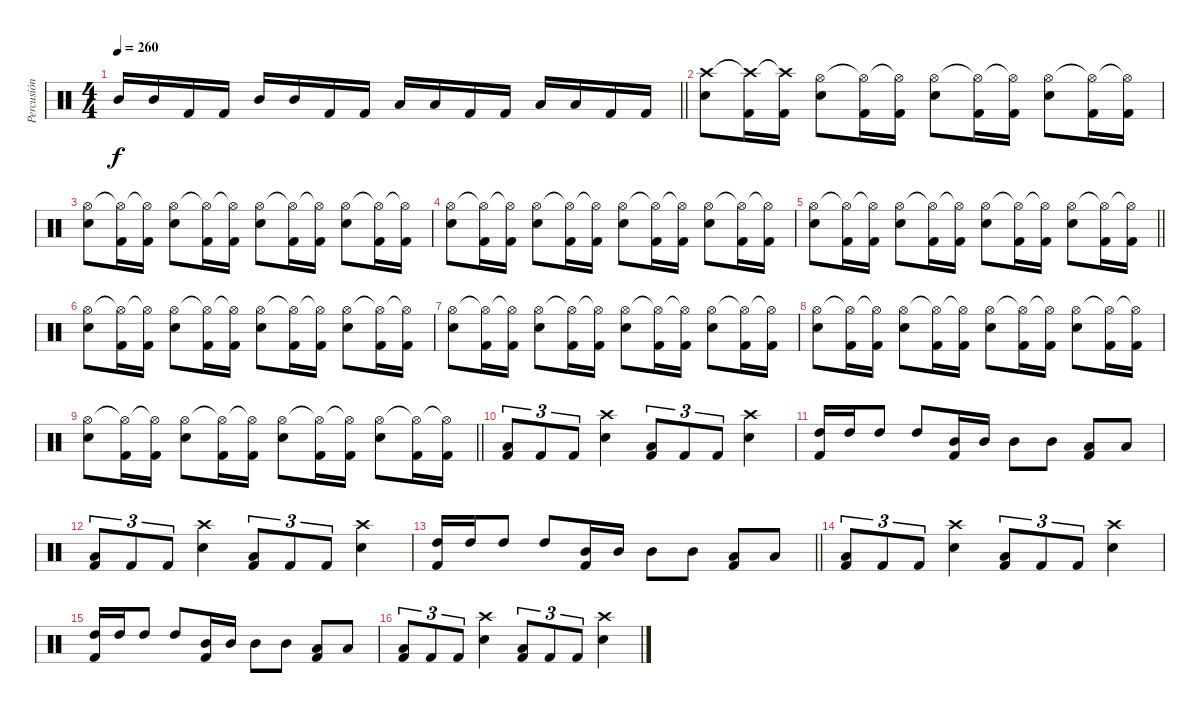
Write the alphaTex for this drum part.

\track ("Percusión" "Percusión") {instrument percussion}
\staff {score}
\articulation defaults
\ts (4 4)
\tempo 260
\clef neutral
\barLineRight lightlight
\ks c "Mid Tom (hit)".16{dy f} "Mid Tom (hit)".16 "Kick (hit) 2".16 "Kick (hit) 2".16 "Mid Tom (hit)".16 "Mid Tom (hit)".16 "Kick (hit) 2".16 "Kick (hit) 2".16 "Low Tom (hit)".16 "Low Tom (hit)".16 "Kick (hit) 2".16 "Kick (hit) 2".16 "Low Tom (hit)".16 "Low Tom (hit)".16 "Kick (hit) 2".16 "Kick (hit) 2".16
|
("Snare (hit) 2" "Crash high (hit)").8 ("Kick (hit) 2" "Crash high (hit)"{t}).16 ("Kick (hit) 2" "Crash high (hit)"{t}).16 ("Snare (hit) 2" "Hi-Hat (open)").8 ("Kick (hit) 2" "Hi-Hat (open)"{t}).16 ("Kick (hit) 2" "Hi-Hat (open)"{t}).16 ("Snare (hit) 2" "Hi-Hat (open)").8 ("Kick (hit) 2" "Hi-Hat (open)"{t}).16 ("Kick (hit) 2" "Hi-Hat (open)"{t}).16 ("Snare (hit) 2" "Hi-Hat (open)").8 ("Kick (hit) 2" "Hi-Hat (open)"{t}).16 ("Kick (hit) 2" "Hi-Hat (open)"{t}).16 |
("Snare (hit) 2" "Hi-Hat (open)").8 ("Kick (hit) 2" "Hi-Hat (open)"{t}).16 ("Kick (hit) 2" "Hi-Hat (open)"{t}).16 ("Snare (hit) 2" "Hi-Hat (open)").8 ("Kick (hit) 2" "Hi-Hat (open)"{t}).16 ("Kick (hit) 2" "Hi-Hat (open)"{t}).16 ("Snare (hit) 2" "Hi-Hat (open)").8 ("Kick (hit) 2" "Hi-Hat (open)"{t}).16 ("Kick (hit) 2" "Hi-Hat (open)"{t}).16 ("Snare (hit) 2" "Hi-Hat (open)").8 ("Kick (hit) 2" "Hi-Hat (open)"{t}).16 ("Kick (hit) 2" "Hi-Hat (open)"{t}).16 |
("Snare (hit) 2" "Hi-Hat (open)").8 ("Kick (hit) 2" "Hi-Hat (open)"{t}).16 ("Kick (hit) 2" "Hi-Hat (open)"{t}).16 ("Snare (hit) 2" "Hi-Hat (open)").8 ("Kick (hit) 2" "Hi-Hat (open)"{t}).16 ("Kick (hit) 2" "Hi-Hat (open)"{t}).16 ("Snare (hit) 2" "Hi-Hat (open)").8 ("Kick (hit) 2" "Hi-Hat (open)"{t}).16 ("Kick (hit) 2" "Hi-Hat (open)"{t}).16 ("Snare (hit) 2" "Hi-Hat (open)").8 ("Kick (hit) 2" "Hi-Hat (open)"{t}).16 ("Kick (hit) 2" "Hi-Hat (open)"{t}).16 |
\barLineRight lightlight
("Snare (hit) 2" "Hi-Hat (open)").8 ("Kick (hit) 2" "Hi-Hat (open)"{t}).16 ("Kick (hit) 2" "Hi-Hat (open)"{t}).16 ("Snare (hit) 2" "Hi-Hat (open)").8 ("Kick (hit) 2" "Hi-Hat (open)"{t}).16 ("Kick (hit) 2" "Hi-Hat (open)"{t}).16 ("Snare (hit) 2" "Hi-Hat (open)").8 ("Kick (hit) 2" "Hi-Hat (open)"{t}).16 ("Kick (hit) 2" "Hi-Hat (open)"{t}).16 ("Snare (hit) 2" "Hi-Hat (open)").8 ("Kick (hit) 2" "Hi-Hat (open)"{t}).16 ("Kick (hit) 2" "Hi-Hat (open)"{t}).16 |
("Snare (hit) 2" "Hi-Hat (open)").8 ("Kick (hit) 2" "Hi-Hat (open)"{t}).16 ("Kick (hit) 2" "Hi-Hat (open)"{t}).16 ("Snare (hit) 2" "Hi-Hat (open)").8 ("Kick (hit) 2" "Hi-Hat (open)"{t}).16 ("Kick (hit) 2" "Hi-Hat (open)"{t}).16 ("Snare (hit) 2" "Hi-Hat (open)").8 ("Kick (hit) 2" "Hi-Hat (open)"{t}).16 ("Kick (hit) 2" "Hi-Hat (open)"{t}).16 ("Snare (hit) 2" "Hi-Hat (open)").8 ("Kick (hit) 2" "Hi-Hat (open)"{t}).16 ("Kick (hit) 2" "Hi-Hat (open)"{t}).16 |
("Snare (hit) 2" "Hi-Hat (open)").8 ("Kick (hit) 2" "Hi-Hat (open)"{t}).16 ("Kick (hit) 2" "Hi-Hat (open)"{t}).16 ("Snare (hit) 2" "Hi-Hat (open)").8 ("Kick (hit) 2" "Hi-Hat (open)"{t}).16 ("Kick (hit) 2" "Hi-Hat (open)"{t}).16 ("Snare (hit) 2" "Hi-Hat (open)").8 ("Kick (hit) 2" "Hi-Hat (open)"{t}).16 ("Kick (hit) 2" "Hi-Hat (open)"{t}).16 ("Snare (hit) 2" "Hi-Hat (open)").8 ("Kick (hit) 2" "Hi-Hat (open)"{t}).16 ("Kick (hit) 2" "Hi-Hat (open)"{t}).16 |
("Snare (hit) 2" "Hi-Hat (open)").8 ("Kick (hit) 2" "Hi-Hat (open)"{t}).16 ("Kick (hit) 2" "Hi-Hat (open)"{t}).16 ("Snare (hit) 2" "Hi-Hat (open)").8 ("Kick (hit) 2" "Hi-Hat (open)"{t}).16 ("Kick (hit) 2" "Hi-Hat (open)"{t}).16 ("Snare (hit) 2" "Hi-Hat (open)").8 ("Kick (hit) 2" "Hi-Hat (open)"{t}).16 ("Kick (hit) 2" "Hi-Hat (open)"{t}).16 ("Snare (hit) 2" "Hi-Hat (open)").8 ("Kick (hit) 2" "Hi-Hat (open)"{t}).16 ("Kick (hit) 2" "Hi-Hat (open)"{t}).16 |
\barLineRight lightlight
("Snare (hit) 2" "Hi-Hat (open)").8 ("Kick (hit) 2" "Hi-Hat (open)"{t}).16 ("Kick (hit) 2" "Hi-Hat (open)"{t}).16 ("Snare (hit) 2" "Hi-Hat (open)").8 ("Kick (hit) 2" "Hi-Hat (open)"{t}).16 ("Kick (hit) 2" "Hi-Hat (open)"{t}).16 ("Snare (hit) 2" "Hi-Hat (open)").8 ("Kick (hit) 2" "Hi-Hat (open)"{t}).16 ("Kick (hit) 2" "Hi-Hat (open)"{t}).16 ("Snare (hit) 2" "Hi-Hat (open)").8 ("Kick (hit) 2" "Hi-Hat (open)"{t}).16 ("Kick (hit) 2" "Hi-Hat (open)"{t}).16 |
("Low Tom (hit)" "Kick (hit) 2").8{tu (3 2)} "Kick (hit) 2".8{tu (3 2)} "Kick (hit) 2".8{tu (3 2)} ("Snare (hit) 2" "Crash high (hit)").4 ("Low Tom (hit)" "Kick (hit) 2").8{tu (3 2)} "Kick (hit) 2".8{tu (3 2)} "Kick (hit) 2".8{tu (3 2)} ("Snare (hit) 2" "Crash high (hit)").4 |
("Kick (hit) 2" "High Tom (hit)").16 "High Tom (hit)".16 "High Tom (hit)".8 "High Tom (hit)".8 ("Kick (hit) 2" "Mid Tom (hit)").16 "Mid Tom (hit)".16 "Mid Tom (hit)".8 "Mid Tom (hit)".8 ("Kick (hit) 2" "Low Tom (hit)").8 "Low Tom (hit)".8 |
("Low Tom (hit)" "Kick (hit) 2").8{tu (3 2)} "Kick (hit) 2".8{tu (3 2)} "Kick (hit) 2".8{tu (3 2)} ("Snare (hit) 2" "Crash high (hit)").4 ("Low Tom (hit)" "Kick (hit) 2").8{tu (3 2)} "Kick (hit) 2".8{tu (3 2)} "Kick (hit) 2".8{tu (3 2)} ("Snare (hit) 2" "Crash high (hit)").4 |
\barLineRight lightlight
("Kick (hit) 2" "High Tom (hit)").16 "High Tom (hit)".16 "High Tom (hit)".8 "High Tom (hit)".8 ("Kick (hit) 2" "Mid Tom (hit)").16 "Mid Tom (hit)".16 "Mid Tom (hit)".8 "Mid Tom (hit)".8 ("Kick (hit) 2" "Low Tom (hit)").8 "Low Tom (hit)".8 |
("Low Tom (hit)" "Kick (hit) 2").8{tu (3 2)} "Kick (hit) 2".8{tu (3 2)} "Kick (hit) 2".8{tu (3 2)} ("Snare (hit) 2" "Crash high (hit)").4 ("Low Tom (hit)" "Kick (hit) 2").8{tu (3 2)} "Kick (hit) 2".8{tu (3 2)} "Kick (hit) 2".8{tu (3 2)} ("Snare (hit) 2" "Crash high (hit)").4 |
("Kick (hit) 2" "High Tom (hit)").16 "High Tom (hit)".16 "High Tom (hit)".8 "High Tom (hit)".8 ("Kick (hit) 2" "Mid Tom (hit)").16 "Mid Tom (hit)".16 "Mid Tom (hit)".8 "Mid Tom (hit)".8 ("Kick (hit) 2" "Low Tom (hit)").8 "Low Tom (hit)".8 |
("Low Tom (hit)" "Kick (hit) 2").8{tu (3 2)} "Kick (hit) 2".8{tu (3 2)} "Kick (hit) 2".8{tu (3 2)} ("Snare (hit) 2" "Crash high (hit)").4 ("Low Tom (hit)" "Kick (hit) 2").8{tu (3 2)} "Kick (hit) 2".8{tu (3 2)} "Kick (hit) 2".8{tu (3 2)} ("Snare (hit) 2" "Crash high (hit)").4
